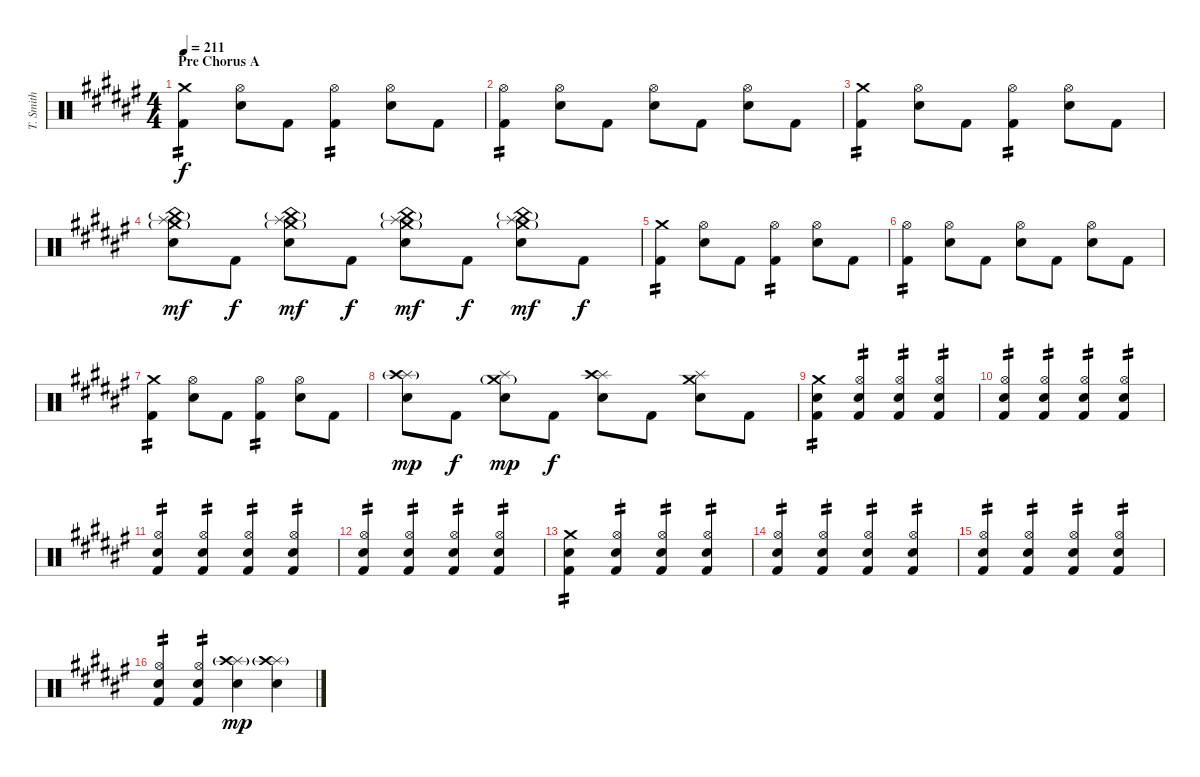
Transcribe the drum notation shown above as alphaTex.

\track ("T. Smith" "T. Smith") {instrument percussion}
\staff {score}
\articulation defaults
\ts (4 4)
\section ("" "Pre Chorus A")
\tempo 211
\clef neutral
\ks d#minor
("Crash medium (hit)" "Kick (hit) 2").4{tp 2 dy f} ("Hi-Hat (open)" "Electric Snare (hit)").8 "Kick (hit) 2".8 ("Hi-Hat (open)" "Kick (hit) 2").4{tp 2} ("Hi-Hat (open)" "Electric Snare (hit)").8 "Kick (hit) 2".8 |
("Hi-Hat (open)" "Kick (hit) 2").4{tp 2} ("Hi-Hat (open)" "Electric Snare (hit)").8 "Kick (hit) 2".8 ("Hi-Hat (open)" "Electric Snare (hit)").8 "Kick (hit) 2".8 ("Hi-Hat (open)" "Electric Snare (hit)").8 "Kick (hit) 2".8 |
("Crash medium (hit)" "Kick (hit) 2").4{tp 2} ("Hi-Hat (open)" "Electric Snare (hit)").8 "Kick (hit) 2".8 ("Hi-Hat (open)" "Kick (hit) 2").4{tp 2} ("Hi-Hat (open)" "Electric Snare (hit)").8 "Kick (hit) 2".8 |
("Splash (hit)" "Crash medium (hit)"{g} "China (hit)"{g} "Electric Snare (hit)").8{dy mf} "Kick (hit) 2".8{dy f} ("Splash (hit)" "Crash medium (hit)"{g} "China (hit)"{g} "Electric Snare (hit)").8{dy mf} "Kick (hit) 2".8{dy f} ("Splash (hit)" "Crash medium (hit)"{g} "China (hit)"{g} "Electric Snare (hit)").8{dy mf} "Kick (hit) 2".8{dy f} ("Splash (hit)" "Crash medium (hit)"{g} "China (hit)"{g} "Electric Snare (hit)").8{dy mf} "Kick (hit) 2".8{dy f} |
("Crash medium (hit)" "Kick (hit) 2").4{tp 2} ("Hi-Hat (open)" "Electric Snare (hit)").8 "Kick (hit) 2".8 ("Hi-Hat (open)" "Kick (hit) 2").4{tp 2} ("Hi-Hat (open)" "Electric Snare (hit)").8 "Kick (hit) 2".8 |
("Hi-Hat (open)" "Kick (hit) 2").4{tp 2} ("Hi-Hat (open)" "Electric Snare (hit)").8 "Kick (hit) 2".8 ("Hi-Hat (open)" "Electric Snare (hit)").8 "Kick (hit) 2".8 ("Hi-Hat (open)" "Electric Snare (hit)").8 "Kick (hit) 2".8 |
("Crash medium (hit)" "Kick (hit) 2").4{tp 2} ("Hi-Hat (open)" "Electric Snare (hit)").8 "Kick (hit) 2".8 ("Hi-Hat (open)" "Kick (hit) 2").4{tp 2} ("Hi-Hat (open)" "Electric Snare (hit)").8 "Kick (hit) 2".8 |
("Splash (hit)" "Crash high (hit)"{g} "Electric Snare (hit)").8{dy mp} "Kick (hit) 2".8{dy f} ("Splash (hit)" "Crash medium (hit)"{g} "Electric Snare (hit)").8{dy mp} "Kick (hit) 2".8{dy f} ("Splash (hit)" "Crash high (hit)" "Electric Snare (hit)").8 "Kick (hit) 2".8 ("Splash (hit)" "Crash medium (hit)" "Electric Snare (hit)").8 "Kick (hit) 2".8 |
("Crash medium (hit)" "Electric Snare (hit)" "Kick (hit) 2").4{tp 2} ("Hi-Hat (open)" "Electric Snare (hit)" "Kick (hit) 2").4{tp 2} ("Hi-Hat (open)" "Electric Snare (hit)" "Kick (hit) 2").4{tp 2} ("Hi-Hat (open)" "Electric Snare (hit)" "Kick (hit) 2").4{tp 2} |
("Hi-Hat (open)" "Electric Snare (hit)" "Kick (hit) 2").4{tp 2} ("Hi-Hat (open)" "Electric Snare (hit)" "Kick (hit) 2").4{tp 2} ("Hi-Hat (open)" "Electric Snare (hit)" "Kick (hit) 2").4{tp 2} ("Hi-Hat (open)" "Electric Snare (hit)" "Kick (hit) 2").4{tp 2} |
("Hi-Hat (open)" "Electric Snare (hit)" "Kick (hit) 2").4{tp 2} ("Hi-Hat (open)" "Electric Snare (hit)" "Kick (hit) 2").4{tp 2} ("Hi-Hat (open)" "Electric Snare (hit)" "Kick (hit) 2").4{tp 2} ("Hi-Hat (open)" "Electric Snare (hit)" "Kick (hit) 2").4{tp 2} |
("Hi-Hat (open)" "Electric Snare (hit)" "Kick (hit) 2").4{tp 2} ("Hi-Hat (open)" "Electric Snare (hit)" "Kick (hit) 2").4{tp 2} ("Hi-Hat (open)" "Electric Snare (hit)" "Kick (hit) 2").4{tp 2} ("Hi-Hat (open)" "Electric Snare (hit)" "Kick (hit) 2").4{tp 2} |
("Crash medium (hit)" "Electric Snare (hit)" "Kick (hit) 2").4{tp 2} ("Hi-Hat (open)" "Electric Snare (hit)" "Kick (hit) 2").4{tp 2} ("Hi-Hat (open)" "Electric Snare (hit)" "Kick (hit) 2").4{tp 2} ("Hi-Hat (open)" "Electric Snare (hit)" "Kick (hit) 2").4{tp 2} |
("Hi-Hat (open)" "Electric Snare (hit)" "Kick (hit) 2").4{tp 2} ("Hi-Hat (open)" "Electric Snare (hit)" "Kick (hit) 2").4{tp 2} ("Hi-Hat (open)" "Electric Snare (hit)" "Kick (hit) 2").4{tp 2} ("Hi-Hat (open)" "Electric Snare (hit)" "Kick (hit) 2").4{tp 2} |
("Hi-Hat (open)" "Electric Snare (hit)" "Kick (hit) 2").4{tp 2} ("Hi-Hat (open)" "Electric Snare (hit)" "Kick (hit) 2").4{tp 2} ("Hi-Hat (open)" "Electric Snare (hit)" "Kick (hit) 2").4{tp 2} ("Hi-Hat (open)" "Electric Snare (hit)" "Kick (hit) 2").4{tp 2} |
("Hi-Hat (open)" "Electric Snare (hit)" "Kick (hit) 2").4{tp 2} ("Hi-Hat (open)" "Electric Snare (hit)" "Kick (hit) 2").4{tp 2} ("Splash (hit)" "Crash high (hit)"{g} "Electric Snare (hit)").4{dy mp} ("Splash (hit)" "Crash high (hit)"{g} "Electric Snare (hit)").4
